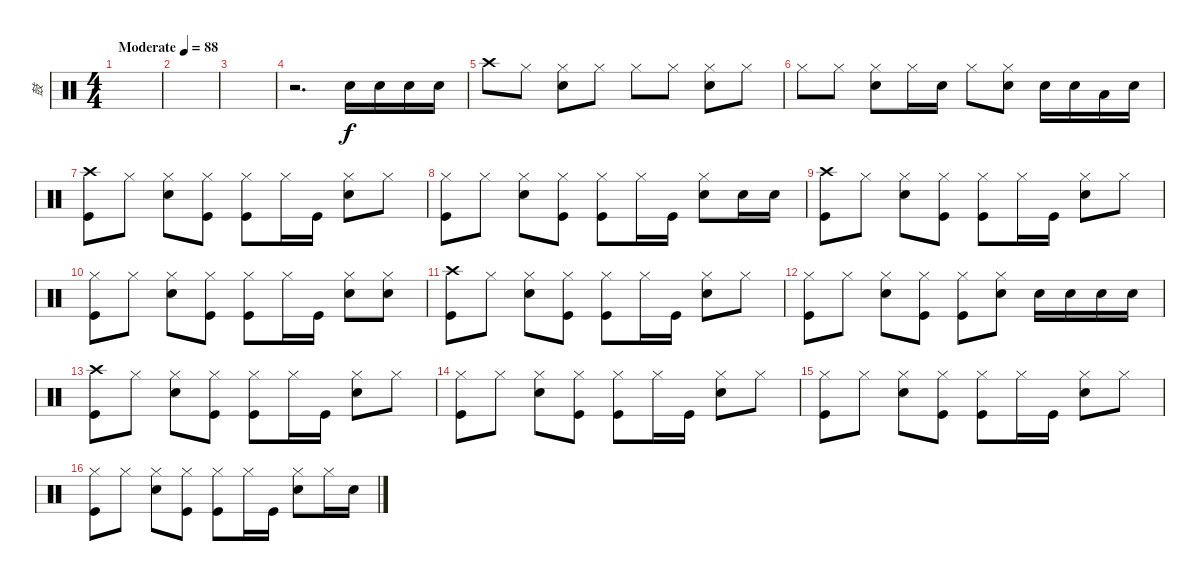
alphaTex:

\track ("鼓" "鼓") {instrument percussion}
\staff {score}
\articulation defaults
\ts (4 4)
\tempo (88 "Moderate")
\clef neutral
\ks c
|
|
|
r.2{d} "Snare (hit) 2".16 "Snare (hit) 2".16 "Snare (hit) 2".16 "Snare (hit) 2".16 |
"Crash high (hit)".8 "Hi-Hat (closed)".8 ("Hi-Hat (closed)" "Snare (hit) 2").8 "Hi-Hat (closed)".8 "Hi-Hat (closed)".8 "Hi-Hat (closed)".8 ("Hi-Hat (closed)" "Snare (hit) 2").8 "Hi-Hat (closed)".8 |
"Hi-Hat (closed)".8 "Hi-Hat (closed)".8 ("Hi-Hat (closed)" "Snare (hit) 2").8 "Hi-Hat (closed)".16 "Snare (hit) 2".16 "Hi-Hat (closed)".8 ("Hi-Hat (closed)" "Snare (hit) 2").8 "Snare (hit) 2".16 "Snare (hit) 2".16 "Low Tom (hit)".16 "Snare (hit) 2".16 |
("Crash high (hit)" "Kick (hit)").8 "Hi-Hat (closed)".8 ("Hi-Hat (closed)" "Snare (hit) 2").8 ("Hi-Hat (closed)" "Kick (hit)").8 ("Hi-Hat (closed)" "Kick (hit)").8 "Hi-Hat (closed)".16 "Kick (hit)".16 ("Hi-Hat (closed)" "Snare (hit) 2").8 "Hi-Hat (closed)".8 |
("Hi-Hat (closed)" "Kick (hit)").8 "Hi-Hat (closed)".8 ("Hi-Hat (closed)" "Snare (hit) 2").8 ("Hi-Hat (closed)" "Kick (hit)").8 ("Hi-Hat (closed)" "Kick (hit)").8 "Hi-Hat (closed)".16 "Kick (hit)".16 ("Hi-Hat (closed)" "Snare (hit) 2").8 "Snare (hit) 2".16 "Snare (hit) 2".16 |
("Crash high (hit)" "Kick (hit)").8 "Hi-Hat (closed)".8 ("Hi-Hat (closed)" "Snare (hit) 2").8 ("Hi-Hat (closed)" "Kick (hit)").8 ("Hi-Hat (closed)" "Kick (hit)").8 "Hi-Hat (closed)".16 "Kick (hit)".16 ("Hi-Hat (closed)" "Snare (hit) 2").8 "Hi-Hat (closed)".8 |
("Hi-Hat (closed)" "Kick (hit)").8 "Hi-Hat (closed)".8 ("Hi-Hat (closed)" "Snare (hit) 2").8 ("Hi-Hat (closed)" "Kick (hit)").8 ("Hi-Hat (closed)" "Kick (hit)").8 "Hi-Hat (closed)".16 "Kick (hit)".16 ("Hi-Hat (closed)" "Snare (hit) 2").8 ("Hi-Hat (closed)" "Snare (hit) 2").8 |
("Crash high (hit)" "Kick (hit)").8 "Hi-Hat (closed)".8 ("Hi-Hat (closed)" "Snare (hit) 2").8 ("Hi-Hat (closed)" "Kick (hit)").8 ("Hi-Hat (closed)" "Kick (hit)").8 "Hi-Hat (closed)".16 "Kick (hit)".16 ("Hi-Hat (closed)" "Snare (hit) 2").8 "Hi-Hat (closed)".8 |
("Hi-Hat (closed)" "Kick (hit)").8 "Hi-Hat (closed)".8 ("Hi-Hat (closed)" "Snare (hit) 2").8 ("Hi-Hat (closed)" "Kick (hit)").8 ("Hi-Hat (closed)" "Kick (hit)").8 ("Hi-Hat (closed)" "Snare (hit) 2").8 "Snare (hit) 2".16 "Snare (hit) 2".16 "Snare (hit) 2".16 "Snare (hit) 2".16 |
("Crash high (hit)" "Kick (hit)").8 "Hi-Hat (closed)".8 ("Hi-Hat (closed)" "Snare (hit) 2").8 ("Hi-Hat (closed)" "Kick (hit)").8 ("Hi-Hat (closed)" "Kick (hit)").8 "Hi-Hat (closed)".16 "Kick (hit)".16 ("Hi-Hat (closed)" "Snare (hit) 2").8 "Hi-Hat (closed)".8 |
("Hi-Hat (closed)" "Kick (hit)").8 "Hi-Hat (closed)".8 ("Hi-Hat (closed)" "Snare (hit) 2").8 ("Hi-Hat (closed)" "Kick (hit)").8 ("Hi-Hat (closed)" "Kick (hit)").8 "Hi-Hat (closed)".16 "Kick (hit)".16 ("Hi-Hat (closed)" "Snare (hit) 2").8 "Hi-Hat (closed)".8 |
("Hi-Hat (closed)" "Kick (hit)").8 "Hi-Hat (closed)".8 ("Hi-Hat (closed)" "Snare (hit) 2").8 ("Hi-Hat (closed)" "Kick (hit)").8 ("Hi-Hat (closed)" "Kick (hit)").8 "Hi-Hat (closed)".16 "Kick (hit)".16 ("Hi-Hat (closed)" "Snare (hit) 2").8 "Hi-Hat (closed)".8 |
("Hi-Hat (closed)" "Kick (hit)").8 "Hi-Hat (closed)".8 ("Hi-Hat (closed)" "Snare (hit) 2").8 ("Hi-Hat (closed)" "Kick (hit)").8 ("Hi-Hat (closed)" "Kick (hit)").8 "Hi-Hat (closed)".16 "Kick (hit)".16 ("Hi-Hat (closed)" "Snare (hit) 2").8 "Hi-Hat (closed)".16 "Snare (hit) 2".16
